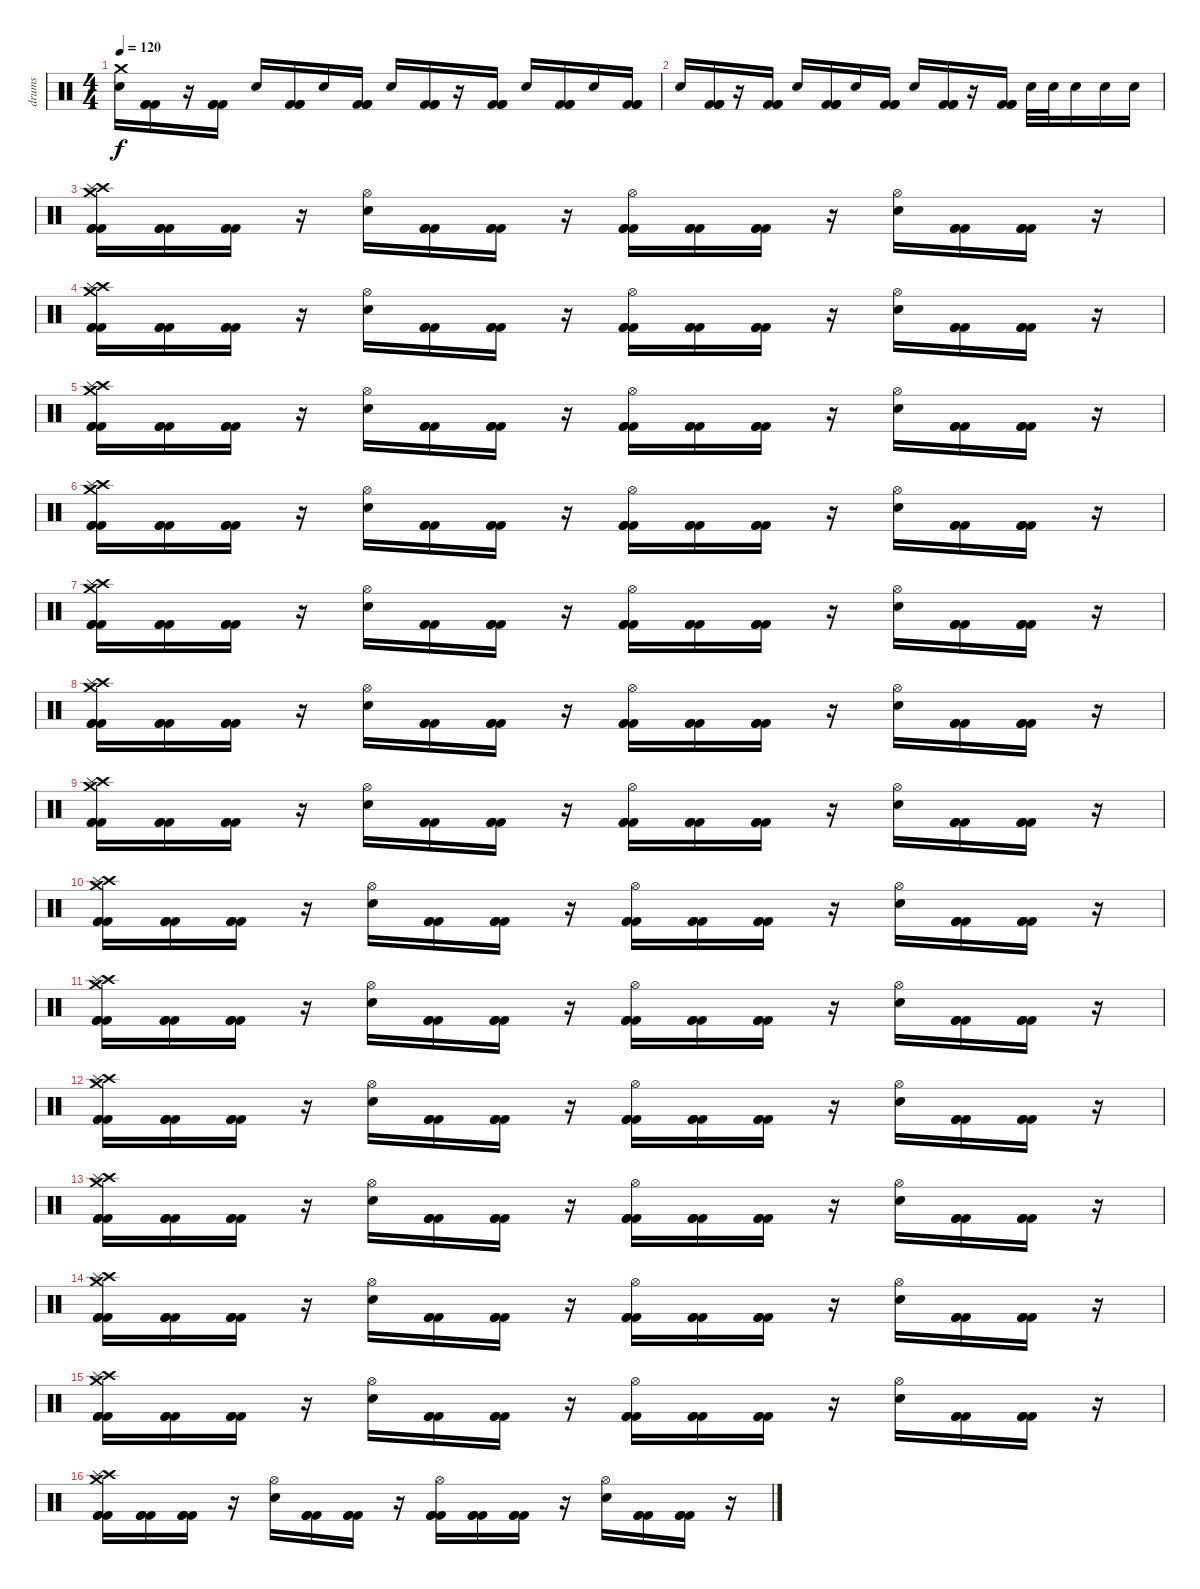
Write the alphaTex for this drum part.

\track ("drums" "drums") {instrument percussion}
\staff {score}
\articulation defaults
\ts (4 4)
\tempo 120
\clef neutral
\ks c
("Crash medium (hit)" "Electric Snare (hit)").16{dy f} ("Kick (hit) 2" "Kick (hit) 2" "Kick (hit) 2").16 r.16 ("Kick (hit) 2" "Kick (hit) 2" "Kick (hit) 2").16 "Electric Snare (hit)".16 ("Kick (hit) 2" "Kick (hit) 2" "Kick (hit) 2").16 "Electric Snare (hit)".16 ("Kick (hit) 2" "Kick (hit) 2" "Kick (hit) 2").16 "Electric Snare (hit)".16 ("Kick (hit) 2" "Kick (hit) 2" "Kick (hit) 2").16 r.16 ("Kick (hit) 2" "Kick (hit) 2" "Kick (hit) 2").16 "Electric Snare (hit)".16 ("Kick (hit) 2" "Kick (hit) 2" "Kick (hit) 2").16 "Electric Snare (hit)".16 ("Kick (hit) 2" "Kick (hit) 2" "Kick (hit) 2").16 |
"Electric Snare (hit)".16 ("Kick (hit) 2" "Kick (hit) 2" "Kick (hit) 2").16 r.16 ("Kick (hit) 2" "Kick (hit) 2" "Kick (hit) 2").16 "Electric Snare (hit)".16 ("Kick (hit) 2" "Kick (hit) 2" "Kick (hit) 2").16 "Electric Snare (hit)".16 ("Kick (hit) 2" "Kick (hit) 2" "Kick (hit) 2").16 "Electric Snare (hit)".16 ("Kick (hit) 2" "Kick (hit) 2" "Kick (hit) 2").16 r.16 ("Kick (hit) 2" "Kick (hit) 2" "Kick (hit) 2").16 "Electric Snare (hit)".32 "Electric Snare (hit)".32 "Electric Snare (hit)".16 "Electric Snare (hit)".16 "Electric Snare (hit)".16 |
("Crash medium (hit)" "Crash high (hit)" "Splash (hit)" "Kick (hit) 2" "Kick (hit) 2" "Kick (hit) 2").16 ("Kick (hit) 2" "Kick (hit) 2" "Kick (hit) 2").16 ("Kick (hit) 2" "Kick (hit) 2" "Kick (hit) 2").16 r.16 ("Hi-Hat (open)" "Electric Snare (hit)").16 ("Kick (hit) 2" "Kick (hit) 2" "Kick (hit) 2").16 ("Kick (hit) 2" "Kick (hit) 2" "Kick (hit) 2").16 r.16 ("Hi-Hat (open)" "Kick (hit) 2" "Kick (hit) 2" "Kick (hit) 2").16 ("Kick (hit) 2" "Kick (hit) 2" "Kick (hit) 2").16 ("Kick (hit) 2" "Kick (hit) 2" "Kick (hit) 2").16 r.16 ("Hi-Hat (open)" "Electric Snare (hit)").16 ("Kick (hit) 2" "Kick (hit) 2" "Kick (hit) 2").16 ("Kick (hit) 2" "Kick (hit) 2" "Kick (hit) 2").16 r.16 |
("Crash medium (hit)" "Crash high (hit)" "Splash (hit)" "Kick (hit) 2" "Kick (hit) 2" "Kick (hit) 2").16 ("Kick (hit) 2" "Kick (hit) 2" "Kick (hit) 2").16 ("Kick (hit) 2" "Kick (hit) 2" "Kick (hit) 2").16 r.16 ("Hi-Hat (open)" "Electric Snare (hit)").16 ("Kick (hit) 2" "Kick (hit) 2" "Kick (hit) 2").16 ("Kick (hit) 2" "Kick (hit) 2" "Kick (hit) 2").16 r.16 ("Hi-Hat (open)" "Kick (hit) 2" "Kick (hit) 2" "Kick (hit) 2").16 ("Kick (hit) 2" "Kick (hit) 2" "Kick (hit) 2").16 ("Kick (hit) 2" "Kick (hit) 2" "Kick (hit) 2").16 r.16 ("Hi-Hat (open)" "Electric Snare (hit)").16 ("Kick (hit) 2" "Kick (hit) 2" "Kick (hit) 2").16 ("Kick (hit) 2" "Kick (hit) 2" "Kick (hit) 2").16 r.16 |
("Crash medium (hit)" "Crash high (hit)" "Splash (hit)" "Kick (hit) 2" "Kick (hit) 2" "Kick (hit) 2").16 ("Kick (hit) 2" "Kick (hit) 2" "Kick (hit) 2").16 ("Kick (hit) 2" "Kick (hit) 2" "Kick (hit) 2").16 r.16 ("Hi-Hat (open)" "Electric Snare (hit)").16 ("Kick (hit) 2" "Kick (hit) 2" "Kick (hit) 2").16 ("Kick (hit) 2" "Kick (hit) 2" "Kick (hit) 2").16 r.16 ("Hi-Hat (open)" "Kick (hit) 2" "Kick (hit) 2" "Kick (hit) 2").16 ("Kick (hit) 2" "Kick (hit) 2" "Kick (hit) 2").16 ("Kick (hit) 2" "Kick (hit) 2" "Kick (hit) 2").16 r.16 ("Hi-Hat (open)" "Electric Snare (hit)").16 ("Kick (hit) 2" "Kick (hit) 2" "Kick (hit) 2").16 ("Kick (hit) 2" "Kick (hit) 2" "Kick (hit) 2").16 r.16 |
("Crash medium (hit)" "Crash high (hit)" "Splash (hit)" "Kick (hit) 2" "Kick (hit) 2" "Kick (hit) 2").16 ("Kick (hit) 2" "Kick (hit) 2" "Kick (hit) 2").16 ("Kick (hit) 2" "Kick (hit) 2" "Kick (hit) 2").16 r.16 ("Hi-Hat (open)" "Electric Snare (hit)").16 ("Kick (hit) 2" "Kick (hit) 2" "Kick (hit) 2").16 ("Kick (hit) 2" "Kick (hit) 2" "Kick (hit) 2").16 r.16 ("Hi-Hat (open)" "Kick (hit) 2" "Kick (hit) 2" "Kick (hit) 2").16 ("Kick (hit) 2" "Kick (hit) 2" "Kick (hit) 2").16 ("Kick (hit) 2" "Kick (hit) 2" "Kick (hit) 2").16 r.16 ("Hi-Hat (open)" "Electric Snare (hit)").16 ("Kick (hit) 2" "Kick (hit) 2" "Kick (hit) 2").16 ("Kick (hit) 2" "Kick (hit) 2" "Kick (hit) 2").16 r.16 |
("Crash medium (hit)" "Crash high (hit)" "Splash (hit)" "Kick (hit) 2" "Kick (hit) 2" "Kick (hit) 2").16 ("Kick (hit) 2" "Kick (hit) 2" "Kick (hit) 2").16 ("Kick (hit) 2" "Kick (hit) 2" "Kick (hit) 2").16 r.16 ("Hi-Hat (open)" "Electric Snare (hit)").16 ("Kick (hit) 2" "Kick (hit) 2" "Kick (hit) 2").16 ("Kick (hit) 2" "Kick (hit) 2" "Kick (hit) 2").16 r.16 ("Hi-Hat (open)" "Kick (hit) 2" "Kick (hit) 2" "Kick (hit) 2").16 ("Kick (hit) 2" "Kick (hit) 2" "Kick (hit) 2").16 ("Kick (hit) 2" "Kick (hit) 2" "Kick (hit) 2").16 r.16 ("Hi-Hat (open)" "Electric Snare (hit)").16 ("Kick (hit) 2" "Kick (hit) 2" "Kick (hit) 2").16 ("Kick (hit) 2" "Kick (hit) 2" "Kick (hit) 2").16 r.16 |
("Crash medium (hit)" "Crash high (hit)" "Splash (hit)" "Kick (hit) 2" "Kick (hit) 2" "Kick (hit) 2").16 ("Kick (hit) 2" "Kick (hit) 2" "Kick (hit) 2").16 ("Kick (hit) 2" "Kick (hit) 2" "Kick (hit) 2").16 r.16 ("Hi-Hat (open)" "Electric Snare (hit)").16 ("Kick (hit) 2" "Kick (hit) 2" "Kick (hit) 2").16 ("Kick (hit) 2" "Kick (hit) 2" "Kick (hit) 2").16 r.16 ("Hi-Hat (open)" "Kick (hit) 2" "Kick (hit) 2" "Kick (hit) 2").16 ("Kick (hit) 2" "Kick (hit) 2" "Kick (hit) 2").16 ("Kick (hit) 2" "Kick (hit) 2" "Kick (hit) 2").16 r.16 ("Hi-Hat (open)" "Electric Snare (hit)").16 ("Kick (hit) 2" "Kick (hit) 2" "Kick (hit) 2").16 ("Kick (hit) 2" "Kick (hit) 2" "Kick (hit) 2").16 r.16 |
("Crash medium (hit)" "Crash high (hit)" "Splash (hit)" "Kick (hit) 2" "Kick (hit) 2" "Kick (hit) 2").16 ("Kick (hit) 2" "Kick (hit) 2" "Kick (hit) 2").16 ("Kick (hit) 2" "Kick (hit) 2" "Kick (hit) 2").16 r.16 ("Hi-Hat (open)" "Electric Snare (hit)").16 ("Kick (hit) 2" "Kick (hit) 2" "Kick (hit) 2").16 ("Kick (hit) 2" "Kick (hit) 2" "Kick (hit) 2").16 r.16 ("Hi-Hat (open)" "Kick (hit) 2" "Kick (hit) 2" "Kick (hit) 2").16 ("Kick (hit) 2" "Kick (hit) 2" "Kick (hit) 2").16 ("Kick (hit) 2" "Kick (hit) 2" "Kick (hit) 2").16 r.16 ("Hi-Hat (open)" "Electric Snare (hit)").16 ("Kick (hit) 2" "Kick (hit) 2" "Kick (hit) 2").16 ("Kick (hit) 2" "Kick (hit) 2" "Kick (hit) 2").16 r.16 |
("Crash medium (hit)" "Crash high (hit)" "Splash (hit)" "Kick (hit) 2" "Kick (hit) 2" "Kick (hit) 2").16 ("Kick (hit) 2" "Kick (hit) 2" "Kick (hit) 2").16 ("Kick (hit) 2" "Kick (hit) 2" "Kick (hit) 2").16 r.16 ("Hi-Hat (open)" "Electric Snare (hit)").16 ("Kick (hit) 2" "Kick (hit) 2" "Kick (hit) 2").16 ("Kick (hit) 2" "Kick (hit) 2" "Kick (hit) 2").16 r.16 ("Hi-Hat (open)" "Kick (hit) 2" "Kick (hit) 2" "Kick (hit) 2").16 ("Kick (hit) 2" "Kick (hit) 2" "Kick (hit) 2").16 ("Kick (hit) 2" "Kick (hit) 2" "Kick (hit) 2").16 r.16 ("Hi-Hat (open)" "Electric Snare (hit)").16 ("Kick (hit) 2" "Kick (hit) 2" "Kick (hit) 2").16 ("Kick (hit) 2" "Kick (hit) 2" "Kick (hit) 2").16 r.16 |
("Crash medium (hit)" "Crash high (hit)" "Splash (hit)" "Kick (hit) 2" "Kick (hit) 2" "Kick (hit) 2").16 ("Kick (hit) 2" "Kick (hit) 2" "Kick (hit) 2").16 ("Kick (hit) 2" "Kick (hit) 2" "Kick (hit) 2").16 r.16 ("Hi-Hat (open)" "Electric Snare (hit)").16 ("Kick (hit) 2" "Kick (hit) 2" "Kick (hit) 2").16 ("Kick (hit) 2" "Kick (hit) 2" "Kick (hit) 2").16 r.16 ("Hi-Hat (open)" "Kick (hit) 2" "Kick (hit) 2" "Kick (hit) 2").16 ("Kick (hit) 2" "Kick (hit) 2" "Kick (hit) 2").16 ("Kick (hit) 2" "Kick (hit) 2" "Kick (hit) 2").16 r.16 ("Hi-Hat (open)" "Electric Snare (hit)").16 ("Kick (hit) 2" "Kick (hit) 2" "Kick (hit) 2").16 ("Kick (hit) 2" "Kick (hit) 2" "Kick (hit) 2").16 r.16 |
("Crash medium (hit)" "Crash high (hit)" "Splash (hit)" "Kick (hit) 2" "Kick (hit) 2" "Kick (hit) 2").16 ("Kick (hit) 2" "Kick (hit) 2" "Kick (hit) 2").16 ("Kick (hit) 2" "Kick (hit) 2" "Kick (hit) 2").16 r.16 ("Hi-Hat (open)" "Electric Snare (hit)").16 ("Kick (hit) 2" "Kick (hit) 2" "Kick (hit) 2").16 ("Kick (hit) 2" "Kick (hit) 2" "Kick (hit) 2").16 r.16 ("Hi-Hat (open)" "Kick (hit) 2" "Kick (hit) 2" "Kick (hit) 2").16 ("Kick (hit) 2" "Kick (hit) 2" "Kick (hit) 2").16 ("Kick (hit) 2" "Kick (hit) 2" "Kick (hit) 2").16 r.16 ("Hi-Hat (open)" "Electric Snare (hit)").16 ("Kick (hit) 2" "Kick (hit) 2" "Kick (hit) 2").16 ("Kick (hit) 2" "Kick (hit) 2" "Kick (hit) 2").16 r.16 |
("Crash medium (hit)" "Crash high (hit)" "Splash (hit)" "Kick (hit) 2" "Kick (hit) 2" "Kick (hit) 2").16 ("Kick (hit) 2" "Kick (hit) 2" "Kick (hit) 2").16 ("Kick (hit) 2" "Kick (hit) 2" "Kick (hit) 2").16 r.16 ("Hi-Hat (open)" "Electric Snare (hit)").16 ("Kick (hit) 2" "Kick (hit) 2" "Kick (hit) 2").16 ("Kick (hit) 2" "Kick (hit) 2" "Kick (hit) 2").16 r.16 ("Hi-Hat (open)" "Kick (hit) 2" "Kick (hit) 2" "Kick (hit) 2").16 ("Kick (hit) 2" "Kick (hit) 2" "Kick (hit) 2").16 ("Kick (hit) 2" "Kick (hit) 2" "Kick (hit) 2").16 r.16 ("Hi-Hat (open)" "Electric Snare (hit)").16 ("Kick (hit) 2" "Kick (hit) 2" "Kick (hit) 2").16 ("Kick (hit) 2" "Kick (hit) 2" "Kick (hit) 2").16 r.16 |
("Crash medium (hit)" "Crash high (hit)" "Splash (hit)" "Kick (hit) 2" "Kick (hit) 2" "Kick (hit) 2").16 ("Kick (hit) 2" "Kick (hit) 2" "Kick (hit) 2").16 ("Kick (hit) 2" "Kick (hit) 2" "Kick (hit) 2").16 r.16 ("Hi-Hat (open)" "Electric Snare (hit)").16 ("Kick (hit) 2" "Kick (hit) 2" "Kick (hit) 2").16 ("Kick (hit) 2" "Kick (hit) 2" "Kick (hit) 2").16 r.16 ("Hi-Hat (open)" "Kick (hit) 2" "Kick (hit) 2" "Kick (hit) 2").16 ("Kick (hit) 2" "Kick (hit) 2" "Kick (hit) 2").16 ("Kick (hit) 2" "Kick (hit) 2" "Kick (hit) 2").16 r.16 ("Hi-Hat (open)" "Electric Snare (hit)").16 ("Kick (hit) 2" "Kick (hit) 2" "Kick (hit) 2").16 ("Kick (hit) 2" "Kick (hit) 2" "Kick (hit) 2").16 r.16 |
("Crash medium (hit)" "Crash high (hit)" "Splash (hit)" "Kick (hit) 2" "Kick (hit) 2" "Kick (hit) 2").16 ("Kick (hit) 2" "Kick (hit) 2" "Kick (hit) 2").16 ("Kick (hit) 2" "Kick (hit) 2" "Kick (hit) 2").16 r.16 ("Hi-Hat (open)" "Electric Snare (hit)").16 ("Kick (hit) 2" "Kick (hit) 2" "Kick (hit) 2").16 ("Kick (hit) 2" "Kick (hit) 2" "Kick (hit) 2").16 r.16 ("Hi-Hat (open)" "Kick (hit) 2" "Kick (hit) 2" "Kick (hit) 2").16 ("Kick (hit) 2" "Kick (hit) 2" "Kick (hit) 2").16 ("Kick (hit) 2" "Kick (hit) 2" "Kick (hit) 2").16 r.16 ("Hi-Hat (open)" "Electric Snare (hit)").16 ("Kick (hit) 2" "Kick (hit) 2" "Kick (hit) 2").16 ("Kick (hit) 2" "Kick (hit) 2" "Kick (hit) 2").16 r.16 |
("Crash medium (hit)" "Crash high (hit)" "Splash (hit)" "Kick (hit) 2" "Kick (hit) 2" "Kick (hit) 2").16 ("Kick (hit) 2" "Kick (hit) 2" "Kick (hit) 2").16 ("Kick (hit) 2" "Kick (hit) 2" "Kick (hit) 2").16 r.16 ("Hi-Hat (open)" "Electric Snare (hit)").16 ("Kick (hit) 2" "Kick (hit) 2" "Kick (hit) 2").16 ("Kick (hit) 2" "Kick (hit) 2" "Kick (hit) 2").16 r.16 ("Hi-Hat (open)" "Kick (hit) 2" "Kick (hit) 2" "Kick (hit) 2").16 ("Kick (hit) 2" "Kick (hit) 2" "Kick (hit) 2").16 ("Kick (hit) 2" "Kick (hit) 2" "Kick (hit) 2").16 r.16 ("Hi-Hat (open)" "Electric Snare (hit)").16 ("Kick (hit) 2" "Kick (hit) 2" "Kick (hit) 2").16 ("Kick (hit) 2" "Kick (hit) 2" "Kick (hit) 2").16 r.16
